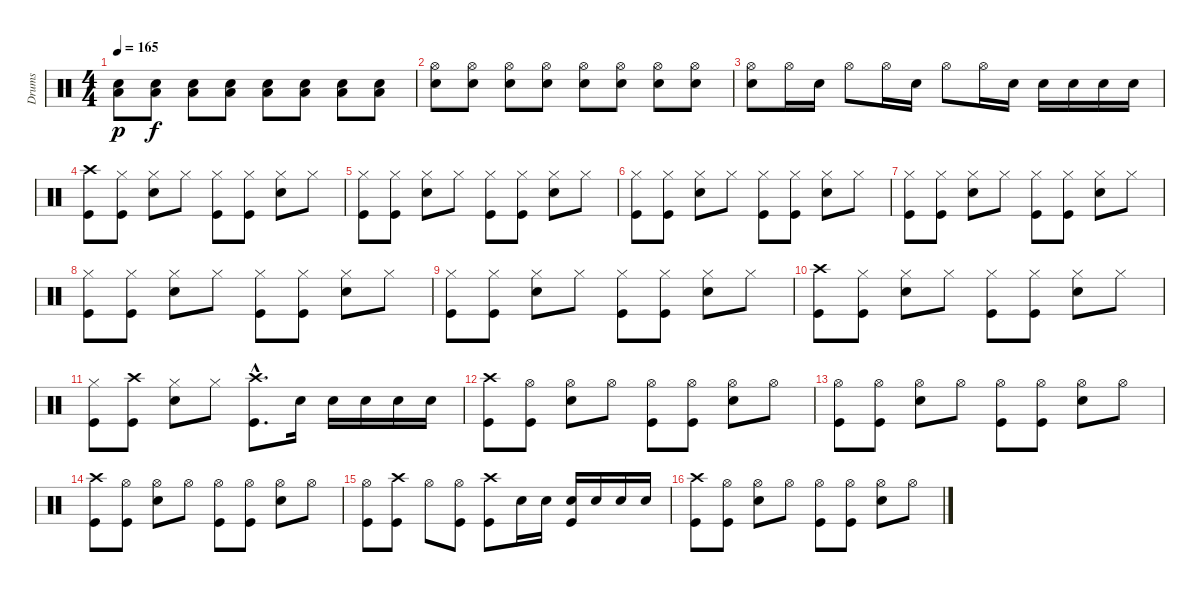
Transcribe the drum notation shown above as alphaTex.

\track ("Drums" "Drums") {instrument percussion}
\staff {score}
\articulation defaults
\ts (4 4)
\tempo 165
\clef neutral
\ks c
("Low Tom (hit)" "Snare (hit) 2").8{dy p} ("Low Tom (hit)" "Snare (hit) 2").8{dy f} ("Low Tom (hit)" "Snare (hit) 2").8 ("Low Tom (hit)" "Snare (hit) 2").8 ("Low Tom (hit)" "Snare (hit) 2").8 ("Low Tom (hit)" "Snare (hit) 2").8 ("Low Tom (hit)" "Snare (hit) 2").8 ("Low Tom (hit)" "Snare (hit) 2").8 |
("Hi-Hat (open)" "Snare (hit) 2").8 ("Hi-Hat (open)" "Snare (hit) 2").8 ("Hi-Hat (open)" "Snare (hit) 2").8 ("Hi-Hat (open)" "Snare (hit) 2").8 ("Hi-Hat (open)" "Snare (hit) 2").8 ("Hi-Hat (open)" "Snare (hit) 2").8 ("Hi-Hat (open)" "Snare (hit) 2").8 ("Hi-Hat (open)" "Snare (hit) 2").8 |
("Hi-Hat (open)" "Snare (hit) 2").8 "Hi-Hat (open)".16 "Snare (hit) 2".16 "Hi-Hat (open)".8 "Hi-Hat (open)".16 "Snare (hit) 2".16 "Hi-Hat (open)".8 "Hi-Hat (open)".16 "Snare (hit) 2".16 "Snare (hit) 2".16 "Snare (hit) 2".16 "Snare (hit) 2".16 "Snare (hit) 2".16 |
("Crash high (hit)" "Kick (hit)").8 ("Hi-Hat (closed)" "Kick (hit)").8 ("Hi-Hat (closed)" "Snare (hit) 2").8 "Hi-Hat (closed)".8 ("Hi-Hat (closed)" "Kick (hit)").8 ("Hi-Hat (closed)" "Kick (hit)").8 ("Hi-Hat (closed)" "Snare (hit) 2").8 "Hi-Hat (closed)".8 |
("Hi-Hat (closed)" "Kick (hit)").8 ("Hi-Hat (closed)" "Kick (hit)").8 ("Hi-Hat (closed)" "Snare (hit) 2").8 "Hi-Hat (closed)".8 ("Hi-Hat (closed)" "Kick (hit)").8 ("Hi-Hat (closed)" "Kick (hit)").8 ("Hi-Hat (closed)" "Snare (hit) 2").8 "Hi-Hat (closed)".8 |
("Hi-Hat (closed)" "Kick (hit)").8 ("Hi-Hat (closed)" "Kick (hit)").8 ("Hi-Hat (closed)" "Snare (hit) 2").8 "Hi-Hat (closed)".8 ("Hi-Hat (closed)" "Kick (hit)").8 ("Hi-Hat (closed)" "Kick (hit)").8 ("Hi-Hat (closed)" "Snare (hit) 2").8 "Hi-Hat (closed)".8 |
("Hi-Hat (closed)" "Kick (hit)").8 ("Hi-Hat (closed)" "Kick (hit)").8 ("Hi-Hat (closed)" "Snare (hit) 2").8 "Hi-Hat (closed)".8 ("Hi-Hat (closed)" "Kick (hit)").8 ("Hi-Hat (closed)" "Kick (hit)").8 ("Hi-Hat (closed)" "Snare (hit) 2").8 "Hi-Hat (closed)".8 |
("Hi-Hat (closed)" "Kick (hit)").8 ("Hi-Hat (closed)" "Kick (hit)").8 ("Hi-Hat (closed)" "Snare (hit) 2").8 "Hi-Hat (closed)".8 ("Hi-Hat (closed)" "Kick (hit)").8 ("Hi-Hat (closed)" "Kick (hit)").8 ("Hi-Hat (closed)" "Snare (hit) 2").8 "Hi-Hat (closed)".8 |
("Hi-Hat (closed)" "Kick (hit)").8 ("Hi-Hat (closed)" "Kick (hit)").8 ("Hi-Hat (closed)" "Snare (hit) 2").8 "Hi-Hat (closed)".8 ("Hi-Hat (closed)" "Kick (hit)").8 ("Hi-Hat (closed)" "Kick (hit)").8 ("Hi-Hat (closed)" "Snare (hit) 2").8 "Hi-Hat (closed)".8 |
("Crash high (hit)" "Kick (hit)").8 ("Hi-Hat (closed)" "Kick (hit)").8 ("Hi-Hat (closed)" "Snare (hit) 2").8 "Hi-Hat (closed)".8 ("Hi-Hat (closed)" "Kick (hit)").8 ("Hi-Hat (closed)" "Kick (hit)").8 ("Hi-Hat (closed)" "Snare (hit) 2").8 "Hi-Hat (closed)".8 |
("Hi-Hat (closed)" "Kick (hit)").8 ("Crash high (hit)" "Kick (hit)").8 ("Hi-Hat (closed)" "Snare (hit) 2").8 "Hi-Hat (closed)".8 ("Crash high (hit)"{hac} "Kick (hit)"{hac}).8{d} "Snare (hit) 2".16 "Snare (hit) 2".16 "Snare (hit) 2".16 "Snare (hit) 2".16 "Snare (hit) 2".16 |
("Crash high (hit)" "Kick (hit)").8 ("Hi-Hat (open)" "Kick (hit)").8 ("Hi-Hat (open)" "Snare (hit) 2").8 "Hi-Hat (open)".8 ("Hi-Hat (open)" "Kick (hit)").8 ("Hi-Hat (open)" "Kick (hit)").8 ("Hi-Hat (open)" "Snare (hit) 2").8 "Hi-Hat (open)".8 |
("Hi-Hat (open)" "Kick (hit)").8 ("Hi-Hat (open)" "Kick (hit)").8 ("Hi-Hat (open)" "Snare (hit) 2").8 "Hi-Hat (open)".8 ("Hi-Hat (open)" "Kick (hit)").8 ("Hi-Hat (open)" "Kick (hit)").8 ("Hi-Hat (open)" "Snare (hit) 2").8 "Hi-Hat (open)".8 |
("Crash high (hit)" "Kick (hit)").8 ("Hi-Hat (open)" "Kick (hit)").8 ("Hi-Hat (open)" "Snare (hit) 2").8 "Hi-Hat (open)".8 ("Hi-Hat (open)" "Kick (hit)").8 ("Hi-Hat (open)" "Kick (hit)").8 ("Hi-Hat (open)" "Snare (hit) 2").8 "Hi-Hat (open)".8 |
("Hi-Hat (open)" "Kick (hit)").8 ("Crash high (hit)" "Kick (hit)").8 "Hi-Hat (open)".8 ("Hi-Hat (open)" "Kick (hit)").8 ("Crash high (hit)" "Kick (hit)").8 "Snare (hit) 2".16 "Snare (hit) 2".16 ("Snare (hit) 2" "Kick (hit)").16 "Snare (hit) 2".16 "Snare (hit) 2".16 "Snare (hit) 2".16 |
("Crash high (hit)" "Kick (hit)").8 ("Hi-Hat (open)" "Kick (hit)").8 ("Hi-Hat (open)" "Snare (hit) 2").8 "Hi-Hat (open)".8 ("Hi-Hat (open)" "Kick (hit)").8 ("Hi-Hat (open)" "Kick (hit)").8 ("Hi-Hat (open)" "Snare (hit) 2").8 "Hi-Hat (open)".8
